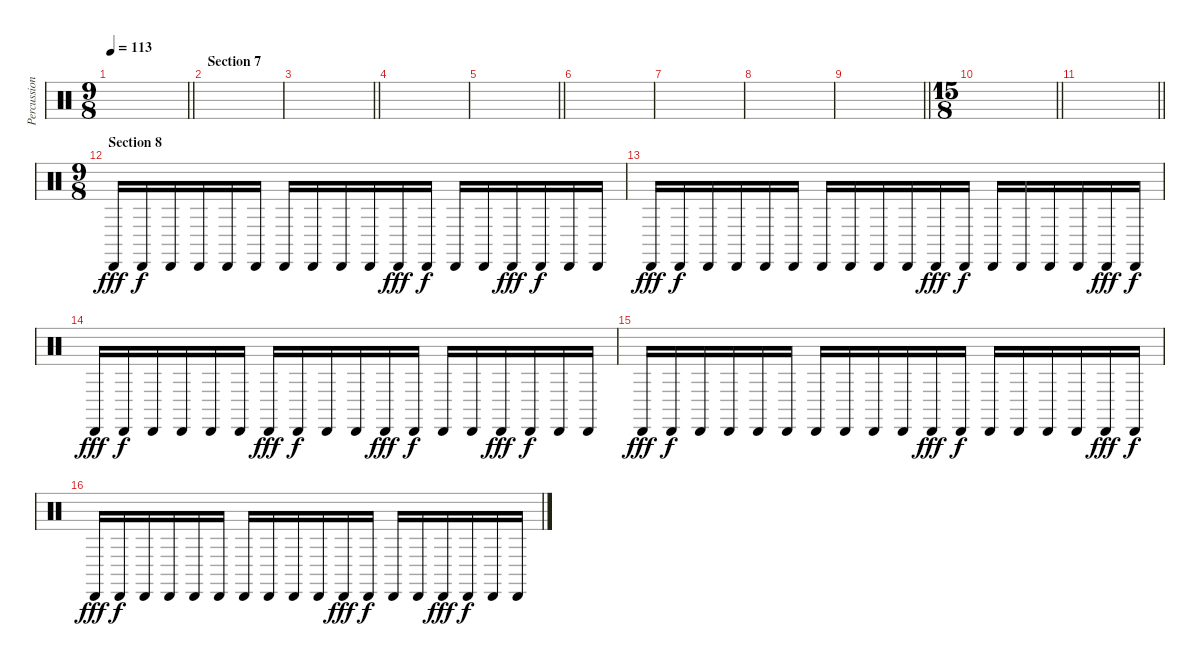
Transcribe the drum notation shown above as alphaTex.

\track ("Percussion" "Percussion") {instrument percussion}
\staff {score}
\articulation defaults
\ts (9 8)
\tempo 113
\clef neutral
\barLineRight lightlight
\ks c
|
\section ("" "Section 7")
|
\barLineRight lightlight
|
|
\barLineRight lightlight
|
|
|
|
\barLineRight lightlight
|
\ts (15 8)
\barLineRight lightlight
|
\barLineRight lightlight
|
\ts (9 8)
\section ("" "Section 8")
"Cabasa (hit)".16{dy fff} "Cabasa (hit)".16{dy f} "Cabasa (hit)".16 "Cabasa (hit)".16 "Cabasa (hit)".16 "Cabasa (hit)".16 "Cabasa (hit)".16 "Cabasa (hit)".16 "Cabasa (hit)".16 "Cabasa (hit)".16 "Cabasa (hit)".16{dy fff} "Cabasa (hit)".16{dy f} "Cabasa (hit)".16 "Cabasa (hit)".16 "Cabasa (hit)".16{dy fff} "Cabasa (hit)".16{dy f} "Cabasa (hit)".16 "Cabasa (hit)".16 |
"Cabasa (hit)".16{dy fff} "Cabasa (hit)".16{dy f} "Cabasa (hit)".16 "Cabasa (hit)".16 "Cabasa (hit)".16 "Cabasa (hit)".16 "Cabasa (hit)".16 "Cabasa (hit)".16 "Cabasa (hit)".16 "Cabasa (hit)".16 "Cabasa (hit)".16{dy fff} "Cabasa (hit)".16{dy f} "Cabasa (hit)".16 "Cabasa (hit)".16 "Cabasa (hit)".16 "Cabasa (hit)".16 "Cabasa (hit)".16{dy fff} "Cabasa (hit)".16{dy f} |
"Cabasa (hit)".16{dy fff} "Cabasa (hit)".16{dy f} "Cabasa (hit)".16 "Cabasa (hit)".16 "Cabasa (hit)".16 "Cabasa (hit)".16 "Cabasa (hit)".16{dy fff} "Cabasa (hit)".16{dy f} "Cabasa (hit)".16 "Cabasa (hit)".16 "Cabasa (hit)".16{dy fff} "Cabasa (hit)".16{dy f} "Cabasa (hit)".16 "Cabasa (hit)".16 "Cabasa (hit)".16{dy fff} "Cabasa (hit)".16{dy f} "Cabasa (hit)".16 "Cabasa (hit)".16 |
"Cabasa (hit)".16{dy fff} "Cabasa (hit)".16{dy f} "Cabasa (hit)".16 "Cabasa (hit)".16 "Cabasa (hit)".16 "Cabasa (hit)".16 "Cabasa (hit)".16 "Cabasa (hit)".16 "Cabasa (hit)".16 "Cabasa (hit)".16 "Cabasa (hit)".16{dy fff} "Cabasa (hit)".16{dy f} "Cabasa (hit)".16 "Cabasa (hit)".16 "Cabasa (hit)".16 "Cabasa (hit)".16 "Cabasa (hit)".16{dy fff} "Cabasa (hit)".16{dy f} |
"Cabasa (hit)".16{dy fff} "Cabasa (hit)".16{dy f} "Cabasa (hit)".16 "Cabasa (hit)".16 "Cabasa (hit)".16 "Cabasa (hit)".16 "Cabasa (hit)".16 "Cabasa (hit)".16 "Cabasa (hit)".16 "Cabasa (hit)".16 "Cabasa (hit)".16{dy fff} "Cabasa (hit)".16{dy f} "Cabasa (hit)".16 "Cabasa (hit)".16 "Cabasa (hit)".16{dy fff} "Cabasa (hit)".16{dy f} "Cabasa (hit)".16 "Cabasa (hit)".16
